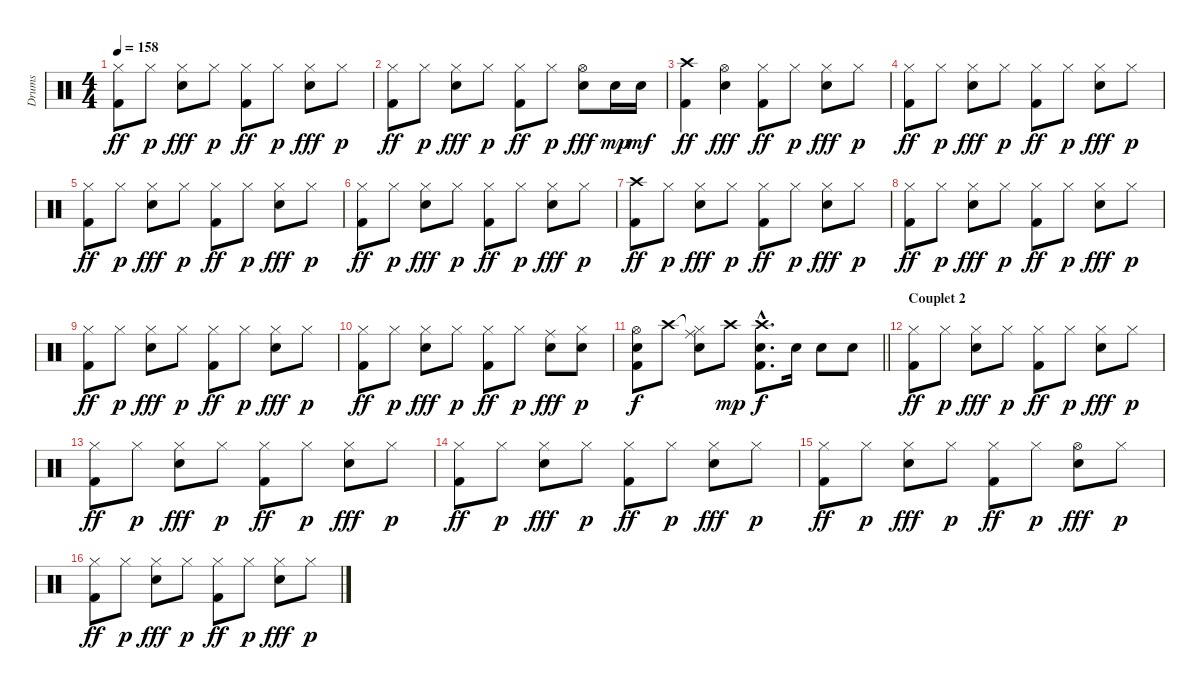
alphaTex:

\track ("Drums" "Drums") {instrument percussion}
\staff {score}
\articulation defaults
\ts (4 4)
\tempo 158
\clef neutral
\ks c
("Hi-Hat (closed)" "Kick (hit) 2").8{dy ff} "Hi-Hat (closed)".8{dy p} ("Hi-Hat (closed)" "Snare (hit) 2").8{dy fff} "Hi-Hat (closed)".8{dy p} ("Hi-Hat (closed)" "Kick (hit) 2").8{dy ff} "Hi-Hat (closed)".8{dy p} ("Hi-Hat (closed)" "Snare (hit) 2").8{dy fff} "Hi-Hat (closed)".8{dy p} |
("Hi-Hat (closed)" "Kick (hit) 2").8{dy ff} "Hi-Hat (closed)".8{dy p} ("Hi-Hat (closed)" "Snare (hit) 2").8{dy fff} "Hi-Hat (closed)".8{dy p} ("Hi-Hat (closed)" "Kick (hit) 2").8{dy ff} "Hi-Hat (closed)".8{dy p} ("Hi-Hat (open)" "Snare (hit) 2").8{dy fff} "Snare (hit) 2".16{dy mp} "Snare (hit) 2".16{dy mf} |
("Crash high (hit)" "Kick (hit) 2").4{dy ff} ("Hi-Hat (open)" "Snare (hit) 2").4{dy fff} ("Hi-Hat (closed)" "Kick (hit) 2").8{dy ff} "Hi-Hat (closed)".8{dy p} ("Hi-Hat (closed)" "Snare (hit) 2").8{dy fff} "Hi-Hat (closed)".8{dy p} |
("Hi-Hat (closed)" "Kick (hit) 2").8{dy ff} "Hi-Hat (closed)".8{dy p} ("Hi-Hat (closed)" "Snare (hit) 2").8{dy fff} "Hi-Hat (closed)".8{dy p} ("Hi-Hat (closed)" "Kick (hit) 2").8{dy ff} "Hi-Hat (closed)".8{dy p} ("Hi-Hat (closed)" "Snare (hit) 2").8{dy fff} "Hi-Hat (closed)".8{dy p} |
("Hi-Hat (closed)" "Kick (hit) 2").8{dy ff} "Hi-Hat (closed)".8{dy p} ("Hi-Hat (closed)" "Snare (hit) 2").8{dy fff} "Hi-Hat (closed)".8{dy p} ("Hi-Hat (closed)" "Kick (hit) 2").8{dy ff} "Hi-Hat (closed)".8{dy p} ("Hi-Hat (closed)" "Snare (hit) 2").8{dy fff} "Hi-Hat (closed)".8{dy p} |
("Hi-Hat (closed)" "Kick (hit) 2").8{dy ff} "Hi-Hat (closed)".8{dy p} ("Hi-Hat (closed)" "Snare (hit) 2").8{dy fff} "Hi-Hat (closed)".8{dy p} ("Hi-Hat (closed)" "Kick (hit) 2").8{dy ff} "Hi-Hat (closed)".8{dy p} ("Hi-Hat (closed)" "Snare (hit) 2").8{dy fff} "Hi-Hat (closed)".8{dy p} |
("Crash high (hit)" "Kick (hit) 2").8{dy ff} "Hi-Hat (closed)".8{dy p} ("Hi-Hat (closed)" "Snare (hit) 2").8{dy fff} "Hi-Hat (closed)".8{dy p} ("Hi-Hat (closed)" "Kick (hit) 2").8{dy ff} "Hi-Hat (closed)".8{dy p} ("Hi-Hat (closed)" "Snare (hit) 2").8{dy fff} "Hi-Hat (closed)".8{dy p} |
("Hi-Hat (closed)" "Kick (hit) 2").8{dy ff} "Hi-Hat (closed)".8{dy p} ("Hi-Hat (closed)" "Snare (hit) 2").8{dy fff} "Hi-Hat (closed)".8{dy p} ("Hi-Hat (closed)" "Kick (hit) 2").8{dy ff} "Hi-Hat (closed)".8{dy p} ("Hi-Hat (closed)" "Snare (hit) 2").8{dy fff} "Hi-Hat (closed)".8{dy p} |
("Hi-Hat (closed)" "Kick (hit) 2").8{dy ff} "Hi-Hat (closed)".8{dy p} ("Hi-Hat (closed)" "Snare (hit) 2").8{dy fff} "Hi-Hat (closed)".8{dy p} ("Hi-Hat (closed)" "Kick (hit) 2").8{dy ff} "Hi-Hat (closed)".8{dy p} ("Hi-Hat (closed)" "Snare (hit) 2").8{dy fff} "Hi-Hat (closed)".8{dy p} |
("Hi-Hat (closed)" "Kick (hit) 2").8{dy ff} "Hi-Hat (closed)".8{dy p} ("Hi-Hat (closed)" "Snare (hit) 2").8{dy fff} "Hi-Hat (closed)".8{dy p} ("Hi-Hat (closed)" "Kick (hit) 2").8{dy ff} "Hi-Hat (closed)".8{dy p} ("Ride (middle)" "Snare (hit) 2").8{dy fff} ("Hi-Hat (closed)" "Snare (hit) 2").8{dy p} |
\barLineRight lightlight
("Hi-Hat (open)" "Snare (hit) 2" "Kick (hit) 2").8{dy f} "Crash high (hit)".8 ("Hi-Hat (closed)"{t} "Snare (hit) 2" "Ride (middle)").8 "Crash high (hit)".8{dy mp} ("Crash high (hit)"{hac} "Snare (hit) 2"{hac} "Kick (hit) 2"{hac}).8{d dy f} "Snare (hit) 2".16 "Snare (hit) 2".8 "Snare (hit) 2".8 |
\section ("" "Couplet 2")
("Hi-Hat (closed)" "Kick (hit) 2").8{dy ff} "Hi-Hat (closed)".8{dy p} ("Hi-Hat (closed)" "Snare (hit) 2").8{dy fff} "Hi-Hat (closed)".8{dy p} ("Hi-Hat (closed)" "Kick (hit) 2").8{dy ff} "Hi-Hat (closed)".8{dy p} ("Hi-Hat (closed)" "Snare (hit) 2").8{dy fff} "Hi-Hat (closed)".8{dy p} |
("Hi-Hat (closed)" "Kick (hit) 2").8{dy ff} "Hi-Hat (closed)".8{dy p} ("Hi-Hat (closed)" "Snare (hit) 2").8{dy fff} "Hi-Hat (closed)".8{dy p} ("Hi-Hat (closed)" "Kick (hit) 2").8{dy ff} "Hi-Hat (closed)".8{dy p} ("Hi-Hat (closed)" "Snare (hit) 2").8{dy fff} "Hi-Hat (closed)".8{dy p} |
("Hi-Hat (closed)" "Kick (hit) 2").8{dy ff} "Hi-Hat (closed)".8{dy p} ("Hi-Hat (closed)" "Snare (hit) 2").8{dy fff} "Hi-Hat (closed)".8{dy p} ("Hi-Hat (closed)" "Kick (hit) 2").8{dy ff} "Hi-Hat (closed)".8{dy p} ("Hi-Hat (closed)" "Snare (hit) 2").8{dy fff} "Hi-Hat (closed)".8{dy p} |
("Hi-Hat (closed)" "Kick (hit) 2").8{dy ff} "Hi-Hat (closed)".8{dy p} ("Hi-Hat (closed)" "Snare (hit) 2").8{dy fff} "Hi-Hat (closed)".8{dy p} ("Hi-Hat (closed)" "Kick (hit) 2").8{dy ff} "Hi-Hat (closed)".8{dy p} ("Hi-Hat (open)" "Snare (hit) 2").8{dy fff} "Hi-Hat (closed)".8{dy p} |
("Hi-Hat (closed)" "Kick (hit) 2").8{dy ff} "Hi-Hat (closed)".8{dy p} ("Hi-Hat (closed)" "Snare (hit) 2").8{dy fff} "Hi-Hat (closed)".8{dy p} ("Hi-Hat (closed)" "Kick (hit) 2").8{dy ff} "Hi-Hat (closed)".8{dy p} ("Hi-Hat (closed)" "Snare (hit) 2").8{dy fff} "Hi-Hat (closed)".8{dy p}
